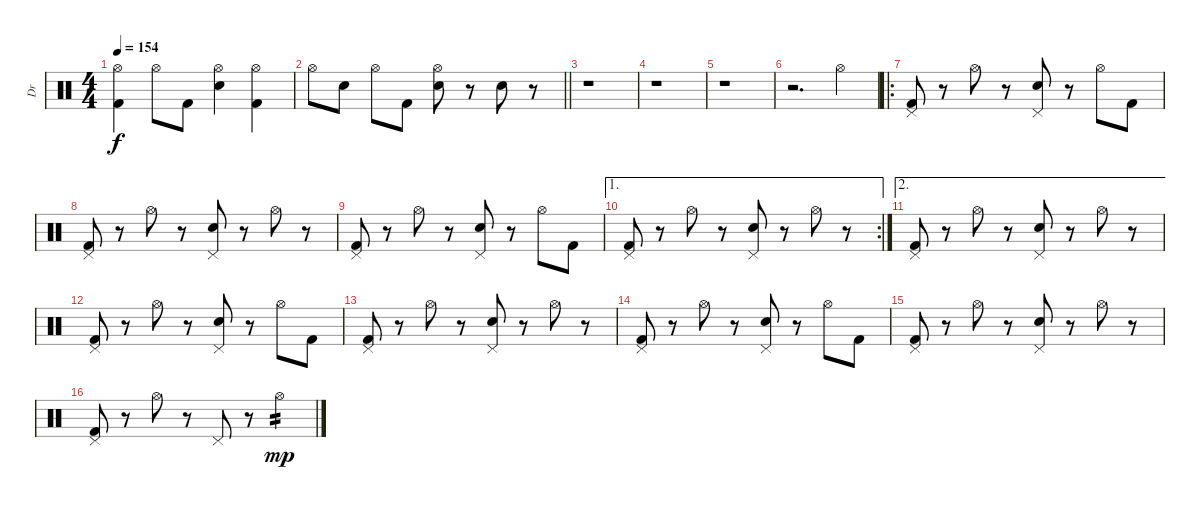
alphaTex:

\track ("Dr" "Dr") {instrument percussion}
\staff {score}
\articulation defaults
\ts (4 4)
\tempo 154
\clef neutral
\ks c
("Hi-Hat (open)" "Kick (hit) 2").4{dy f} "Hi-Hat (open)".8 "Kick (hit) 2".8 ("Hi-Hat (open)" "Electric Snare (hit)").4 ("Hi-Hat (open)" "Kick (hit) 2").4 |
\barLineRight lightlight "Hi-Hat (open)".8 "Electric Snare (hit)".8 "Hi-Hat (open)".8 "Kick (hit) 2".8
("Hi-Hat (open)" "Electric Snare (hit)").8 r.8 "Electric Snare (hit)".8 r.8 |
r.1 |
r.1 |
r.1 |
r.2{d} "Hi-Hat (open)".4 |
\ro
("Pedal Hi-Hat (hit)" "Kick (hit) 2").8 r.8 "Hi-Hat (open)".8 r.8 ("Pedal Hi-Hat (hit)" "Electric Snare (hit)").8 r.8 "Hi-Hat (open)".8 "Kick (hit) 2".8 |
("Pedal Hi-Hat (hit)" "Kick (hit) 2").8 r.8 "Hi-Hat (open)".8 r.8 ("Pedal Hi-Hat (hit)" "Electric Snare (hit)").8 r.8 "Hi-Hat (open)".8 r.8 |
("Pedal Hi-Hat (hit)" "Kick (hit) 2").8 r.8 "Hi-Hat (open)".8 r.8 ("Pedal Hi-Hat (hit)" "Electric Snare (hit)").8 r.8 "Hi-Hat (open)".8 "Kick (hit) 2".8 |
\ae 1
\rc 2
("Pedal Hi-Hat (hit)" "Kick (hit) 2").8 r.8 "Hi-Hat (open)".8 r.8 ("Pedal Hi-Hat (hit)" "Electric Snare (hit)").8 r.8 "Hi-Hat (open)".8 r.8 |
\ae 2
("Pedal Hi-Hat (hit)" "Kick (hit) 2").8 r.8 "Hi-Hat (open)".8 r.8 ("Pedal Hi-Hat (hit)" "Electric Snare (hit)").8 r.8 "Hi-Hat (open)".8 r.8 |
("Pedal Hi-Hat (hit)" "Kick (hit) 2").8 r.8 "Hi-Hat (open)".8 r.8 ("Pedal Hi-Hat (hit)" "Electric Snare (hit)").8 r.8 "Hi-Hat (open)".8 "Kick (hit) 2".8 |
("Pedal Hi-Hat (hit)" "Kick (hit) 2").8 r.8 "Hi-Hat (open)".8 r.8 ("Pedal Hi-Hat (hit)" "Electric Snare (hit)").8 r.8 "Hi-Hat (open)".8 r.8 |
("Pedal Hi-Hat (hit)" "Kick (hit) 2").8 r.8 "Hi-Hat (open)".8 r.8 ("Pedal Hi-Hat (hit)" "Electric Snare (hit)").8 r.8 "Hi-Hat (open)".8 "Kick (hit) 2".8 |
("Pedal Hi-Hat (hit)" "Kick (hit) 2").8 r.8 "Hi-Hat (open)".8 r.8 ("Pedal Hi-Hat (hit)" "Electric Snare (hit)").8 r.8 "Hi-Hat (open)".8 r.8 |
("Pedal Hi-Hat (hit)" "Kick (hit) 2").8 r.8 "Hi-Hat (open)".8 r.8 "Pedal Hi-Hat (hit)".8 r.8 "Hi-Hat (open)".4{tp 2 dy mp}
